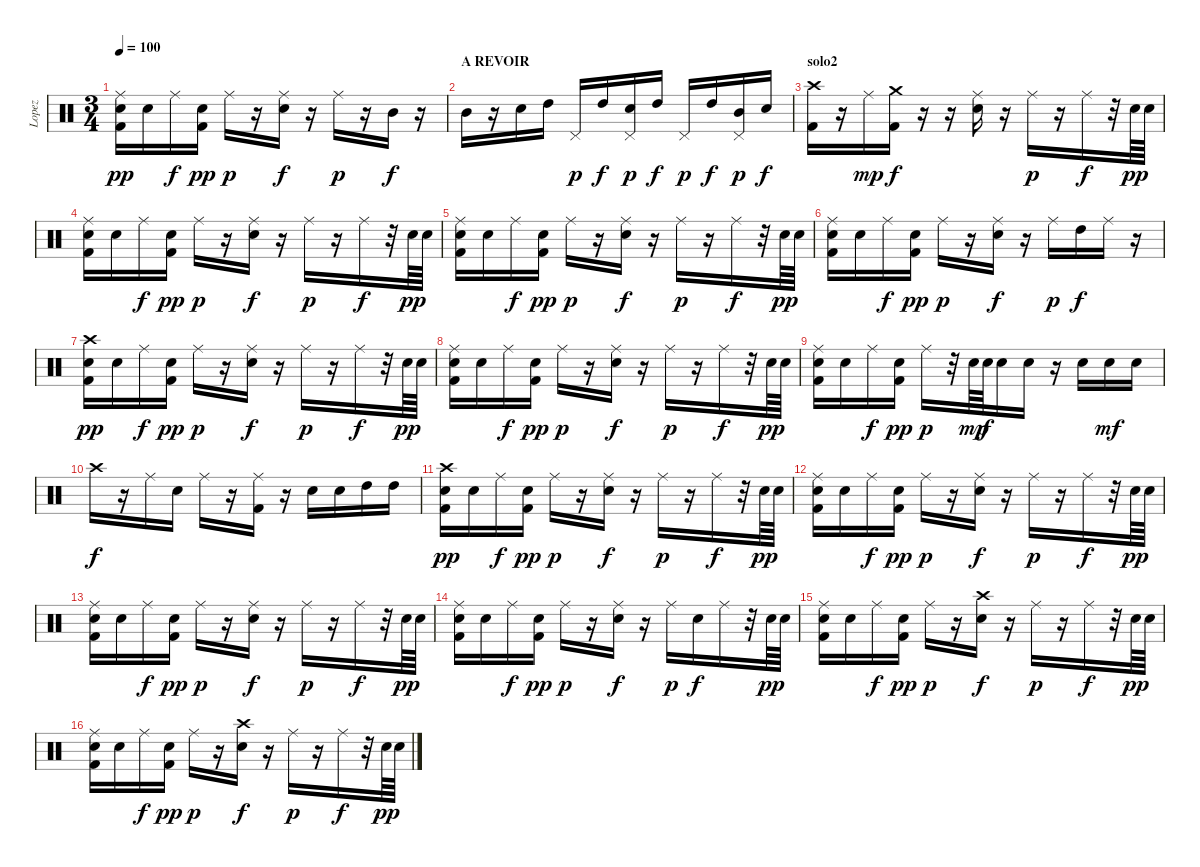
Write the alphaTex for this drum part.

\track ("Lopez" "Lopez") {instrument percussion}
\staff {score}
\articulation defaults
\ts (3 4)
\tempo 100
\clef neutral
\ks c
("Ride (middle)" "Snare (hit) 2" "Kick (hit) 2").16{dy pp} "Snare (hit) 2".16 "Ride (middle)".16{dy f} ("Snare (hit) 2" "Kick (hit) 2").16{dy pp} "Ride (middle)".16{dy p} r.16 ("Ride (middle)" "Snare (hit) 2").16{dy f} r.16 "Ride (middle)".16{dy p} r.16 "Mid Tom (hit)".16{dy f} r.16 |
\section ("" "A REVOIR")
"Mid Tom (hit)".16 r.16 "Snare (hit) 2".16 "High Tom (hit)".16 "Pedal Hi-Hat (hit)".16{dy p} "High Tom (hit)".16{dy f} ("Pedal Hi-Hat (hit)" "Snare (hit) 2").16{dy p} "High Tom (hit)".16{dy f} "Pedal Hi-Hat (hit)".16{dy p} "High Tom (hit)".16{dy f} ("Pedal Hi-Hat (hit)" "Mid Tom (hit)").16{dy p} "Electric Snare (hit)".16{dy f} |
\section ("" "solo2")
("Crash high (hit)" "Kick (hit) 2").16 r.16 "Ride (middle)".16{dy mp} ("Crash medium (hit)" "Kick (hit) 2").16{dy f} r.16 r.16 ("Ride (middle)" "Snare (hit) 2").16 r.16 "Ride (middle)".16{dy p} r.16 "Ride (middle)".16{dy f} r.32 "Snare (hit) 2".64{dy pp} "Snare (hit) 2".64 |
("Ride (middle)" "Snare (hit) 2" "Kick (hit) 2").16 "Snare (hit) 2".16 "Ride (middle)".16{dy f} ("Snare (hit) 2" "Kick (hit) 2").16{dy pp} "Ride (middle)".16{dy p} r.16 ("Ride (middle)" "Snare (hit) 2").16{dy f} r.16 "Ride (middle)".16{dy p} r.16 "Ride (middle)".16{dy f} r.32 "Snare (hit) 2".64{dy pp} "Snare (hit) 2".64 |
("Ride (middle)" "Snare (hit) 2" "Kick (hit) 2").16 "Snare (hit) 2".16 "Ride (middle)".16{dy f} ("Snare (hit) 2" "Kick (hit) 2").16{dy pp} "Ride (middle)".16{dy p} r.16 ("Ride (middle)" "Snare (hit) 2").16{dy f} r.16 "Ride (middle)".16{dy p} r.16 "Ride (middle)".16{dy f} r.32 "Snare (hit) 2".64{dy pp} "Snare (hit) 2".64 |
("Ride (middle)" "Snare (hit) 2" "Kick (hit) 2").16 "Snare (hit) 2".16 "Ride (middle)".16{dy f} ("Snare (hit) 2" "Kick (hit) 2").16{dy pp} "Ride (middle)".16{dy p} r.16 ("Ride (middle)" "Snare (hit) 2").16{dy f} r.16 "Ride (middle)".16{dy p} "High Tom (hit)".16{dy f} "Ride (middle)".16 r.16 |
("Crash high (hit)" "Snare (hit) 2" "Kick (hit) 2").16{dy pp} "Snare (hit) 2".16 "Ride (middle)".16{dy f} ("Snare (hit) 2" "Kick (hit) 2").16{dy pp} "Ride (middle)".16{dy p} r.16 ("Ride (middle)" "Snare (hit) 2").16{dy f} r.16 "Ride (middle)".16{dy p} r.16 "Ride (middle)".16{dy f} r.32 "Snare (hit) 2".64{dy pp} "Snare (hit) 2".64 |
("Ride (middle)" "Snare (hit) 2" "Kick (hit) 2").16 "Snare (hit) 2".16 "Ride (middle)".16{dy f} ("Snare (hit) 2" "Kick (hit) 2").16{dy pp} "Ride (middle)".16{dy p} r.16 ("Ride (middle)" "Snare (hit) 2").16{dy f} r.16 "Ride (middle)".16{dy p} r.16 "Ride (middle)".16{dy f} r.32 "Snare (hit) 2".64{dy pp} "Snare (hit) 2".64 |
("Ride (middle)" "Snare (hit) 2" "Kick (hit) 2").16 "Snare (hit) 2".16 "Ride (middle)".16{dy f} ("Snare (hit) 2" "Kick (hit) 2").16{dy pp} "Ride (middle)".16{dy p} r.32 "Snare (hit) 2".64{dy mp} "Snare (hit) 2".64{dy f} "Snare (hit) 2".16 "Snare (hit) 2".16 r.16 "Snare (hit) 2".16 "Snare (hit) 2".16{dy mf} "Snare (hit) 2".16 |
"Crash high (hit)".16{dy f} r.16 "Ride (middle)".16 "Snare (hit) 2".16 "Ride (middle)".16 r.16 ("Ride (middle)" "Kick (hit) 2").16 r.16 "Snare (hit) 2".16 "Snare (hit) 2".16 "High Tom (hit)".16 "High Tom (hit)".16 |
("Crash high (hit)" "Snare (hit) 2" "Kick (hit) 2").16{dy pp} "Snare (hit) 2".16 "Ride (middle)".16{dy f} ("Snare (hit) 2" "Kick (hit) 2").16{dy pp} "Ride (middle)".16{dy p} r.16 ("Ride (middle)" "Snare (hit) 2").16{dy f} r.16 "Ride (middle)".16{dy p} r.16 "Ride (middle)".16{dy f} r.32 "Snare (hit) 2".64{dy pp} "Snare (hit) 2".64 |
("Ride (middle)" "Snare (hit) 2" "Kick (hit) 2").16 "Snare (hit) 2".16 "Ride (middle)".16{dy f} ("Snare (hit) 2" "Kick (hit) 2").16{dy pp} "Ride (middle)".16{dy p} r.16 ("Ride (middle)" "Snare (hit) 2").16{dy f} r.16 "Ride (middle)".16{dy p} r.16 "Ride (middle)".16{dy f} r.32 "Snare (hit) 2".64{dy pp} "Snare (hit) 2".64 |
("Ride (middle)" "Snare (hit) 2" "Kick (hit) 2").16 "Snare (hit) 2".16 "Ride (middle)".16{dy f} ("Snare (hit) 2" "Kick (hit) 2").16{dy pp} "Ride (middle)".16{dy p} r.16 ("Ride (middle)" "Snare (hit) 2").16{dy f} r.16 "Ride (middle)".16{dy p} r.16 "Ride (middle)".16{dy f} r.32 "Snare (hit) 2".64{dy pp} "Snare (hit) 2".64 |
("Ride (middle)" "Snare (hit) 2" "Kick (hit) 2").16 "Snare (hit) 2".16 "Ride (middle)".16{dy f} ("Snare (hit) 2" "Kick (hit) 2").16{dy pp} "Ride (middle)".16{dy p} r.16 ("Ride (middle)" "Snare (hit) 2").16{dy f} r.16 "Ride (middle)".16{dy p} "Snare (hit) 2".16{dy f} "Ride (middle)".16 r.32 "Snare (hit) 2".64{dy pp} "Snare (hit) 2".64 |
("Ride (middle)" "Snare (hit) 2" "Kick (hit) 2").16 "Snare (hit) 2".16 "Ride (middle)".16{dy f} ("Snare (hit) 2" "Kick (hit) 2").16{dy pp} "Ride (middle)".16{dy p} r.16 ("Crash high (hit)" "Snare (hit) 2").16{dy f} r.16 "Ride (middle)".16{dy p} r.16 "Ride (middle)".16{dy f} r.32 "Snare (hit) 2".64{dy pp} "Snare (hit) 2".64 |
("Ride (middle)" "Snare (hit) 2" "Kick (hit) 2").16 "Snare (hit) 2".16 "Ride (middle)".16{dy f} ("Snare (hit) 2" "Kick (hit) 2").16{dy pp} "Ride (middle)".16{dy p} r.16 ("Crash high (hit)" "Snare (hit) 2").16{dy f} r.16 "Ride (middle)".16{dy p} r.16 "Ride (middle)".16{dy f} r.32 "Snare (hit) 2".64{dy pp} "Snare (hit) 2".64
